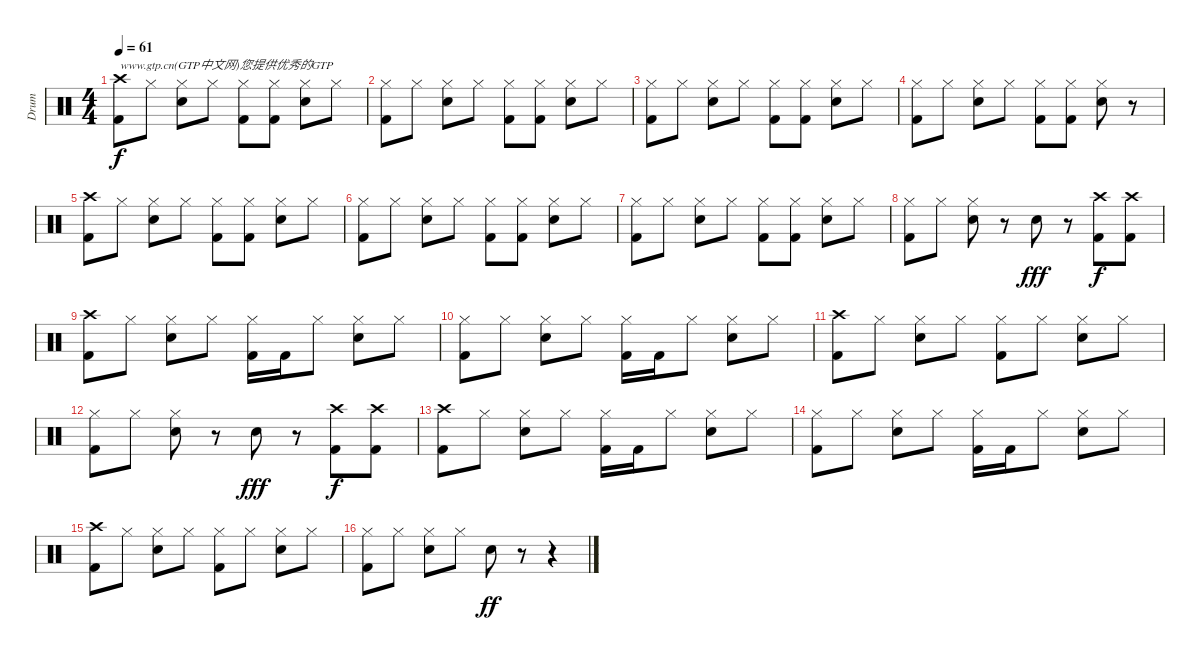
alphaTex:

\track ("Drum" "Drum") {instrument percussion}
\staff {score}
\articulation defaults
\ts (4 4)
\tempo 61
\clef neutral
\ks c
("Crash high (hit)" "Kick (hit) 2").8{txt "www.gtp.cn(GTP中文网)您提供优秀的GTP" dy f} "Hi-Hat (closed)".8 ("Hi-Hat (closed)" "Snare (hit) 2").8 "Hi-Hat (closed)".8 ("Hi-Hat (closed)" "Kick (hit) 2").8 ("Hi-Hat (closed)" "Kick (hit) 2").8 ("Hi-Hat (closed)" "Snare (hit) 2").8 "Hi-Hat (closed)".8 |
("Hi-Hat (closed)" "Kick (hit) 2").8 "Hi-Hat (closed)".8 ("Hi-Hat (closed)" "Snare (hit) 2").8 "Hi-Hat (closed)".8 ("Hi-Hat (closed)" "Kick (hit) 2").8 ("Hi-Hat (closed)" "Kick (hit) 2").8 ("Hi-Hat (closed)" "Snare (hit) 2").8 "Hi-Hat (closed)".8 |
("Hi-Hat (closed)" "Kick (hit) 2").8 "Hi-Hat (closed)".8 ("Hi-Hat (closed)" "Snare (hit) 2").8 "Hi-Hat (closed)".8 ("Hi-Hat (closed)" "Kick (hit) 2").8 ("Hi-Hat (closed)" "Kick (hit) 2").8 ("Hi-Hat (closed)" "Snare (hit) 2").8 "Hi-Hat (closed)".8 |
("Hi-Hat (closed)" "Kick (hit) 2").8 "Hi-Hat (closed)".8 ("Hi-Hat (closed)" "Snare (hit) 2").8 "Hi-Hat (closed)".8 ("Hi-Hat (closed)" "Kick (hit) 2").8 ("Hi-Hat (closed)" "Kick (hit) 2").8 ("Hi-Hat (closed)" "Snare (hit) 2").8 r.8 |
("Crash high (hit)" "Kick (hit) 2").8 "Hi-Hat (closed)".8 ("Hi-Hat (closed)" "Snare (hit) 2").8 "Hi-Hat (closed)".8 ("Hi-Hat (closed)" "Kick (hit) 2").8 ("Hi-Hat (closed)" "Kick (hit) 2").8 ("Hi-Hat (closed)" "Snare (hit) 2").8 "Hi-Hat (closed)".8 |
("Hi-Hat (closed)" "Kick (hit) 2").8 "Hi-Hat (closed)".8 ("Hi-Hat (closed)" "Snare (hit) 2").8 "Hi-Hat (closed)".8 ("Hi-Hat (closed)" "Kick (hit) 2").8 ("Hi-Hat (closed)" "Kick (hit) 2").8 ("Hi-Hat (closed)" "Snare (hit) 2").8 "Hi-Hat (closed)".8 |
("Hi-Hat (closed)" "Kick (hit) 2").8 "Hi-Hat (closed)".8 ("Hi-Hat (closed)" "Snare (hit) 2").8 "Hi-Hat (closed)".8 ("Hi-Hat (closed)" "Kick (hit) 2").8 ("Hi-Hat (closed)" "Kick (hit) 2").8 ("Hi-Hat (closed)" "Snare (hit) 2").8 "Hi-Hat (closed)".8 |
("Hi-Hat (closed)" "Kick (hit) 2").8 "Hi-Hat (closed)".8 ("Hi-Hat (closed)" "Snare (hit) 2").8 r.8 "Snare (hit) 2".8{dy fff} r.8 ("Crash high (hit)" "Kick (hit) 2").8{dy f} ("Crash high (hit)" "Kick (hit) 2").8 |
("Crash high (hit)" "Kick (hit) 2").8 "Hi-Hat (closed)".8 ("Hi-Hat (closed)" "Snare (hit) 2").8 "Hi-Hat (closed)".8 ("Hi-Hat (closed)" "Kick (hit) 2").16 "Kick (hit) 2".16 "Hi-Hat (closed)".8 ("Hi-Hat (closed)" "Snare (hit) 2").8 "Hi-Hat (closed)".8 |
("Hi-Hat (closed)" "Kick (hit) 2").8 "Hi-Hat (closed)".8 ("Hi-Hat (closed)" "Snare (hit) 2").8 "Hi-Hat (closed)".8 ("Hi-Hat (closed)" "Kick (hit) 2").16 "Kick (hit) 2".16 "Hi-Hat (closed)".8 ("Hi-Hat (closed)" "Snare (hit) 2").8 "Hi-Hat (closed)".8 |
("Crash high (hit)" "Kick (hit) 2").8 "Hi-Hat (closed)".8 ("Hi-Hat (closed)" "Snare (hit) 2").8 "Hi-Hat (closed)".8 ("Hi-Hat (closed)" "Kick (hit) 2").8 "Hi-Hat (closed)".8 ("Hi-Hat (closed)" "Snare (hit) 2").8 "Hi-Hat (closed)".8 |
("Hi-Hat (closed)" "Kick (hit) 2").8 "Hi-Hat (closed)".8 ("Hi-Hat (closed)" "Snare (hit) 2").8 r.8 "Snare (hit) 2".8{dy fff} r.8 ("Crash high (hit)" "Kick (hit) 2").8{dy f} ("Crash high (hit)" "Kick (hit) 2").8 |
("Crash high (hit)" "Kick (hit) 2").8 "Hi-Hat (closed)".8 ("Hi-Hat (closed)" "Snare (hit) 2").8 "Hi-Hat (closed)".8 ("Hi-Hat (closed)" "Kick (hit) 2").16 "Kick (hit) 2".16 "Hi-Hat (closed)".8 ("Hi-Hat (closed)" "Snare (hit) 2").8 "Hi-Hat (closed)".8 |
("Hi-Hat (closed)" "Kick (hit) 2").8 "Hi-Hat (closed)".8 ("Hi-Hat (closed)" "Snare (hit) 2").8 "Hi-Hat (closed)".8 ("Hi-Hat (closed)" "Kick (hit) 2").16 "Kick (hit) 2".16 "Hi-Hat (closed)".8 ("Hi-Hat (closed)" "Snare (hit) 2").8 "Hi-Hat (closed)".8 |
("Crash high (hit)" "Kick (hit) 2").8 "Hi-Hat (closed)".8 ("Hi-Hat (closed)" "Snare (hit) 2").8 "Hi-Hat (closed)".8 ("Hi-Hat (closed)" "Kick (hit) 2").8 "Hi-Hat (closed)".8 ("Hi-Hat (closed)" "Snare (hit) 2").8 "Hi-Hat (closed)".8 |
("Hi-Hat (closed)" "Kick (hit) 2").8 "Hi-Hat (closed)".8 ("Hi-Hat (closed)" "Snare (hit) 2").8 "Hi-Hat (closed)".8 "Snare (hit) 2".8{dy ff} r.8 r.4
